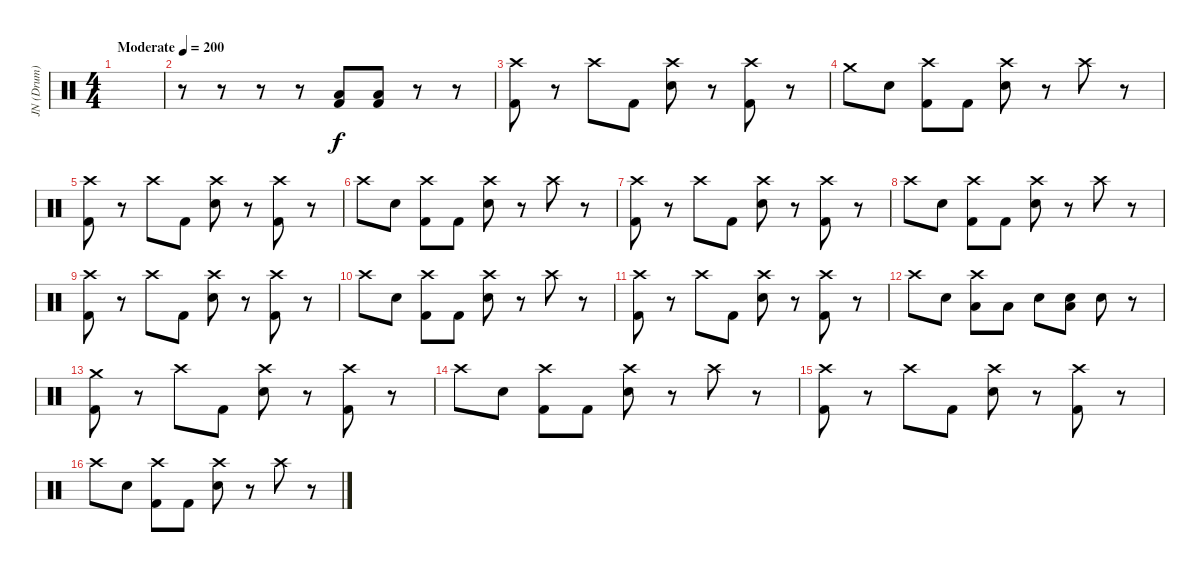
\track ("JN (Drum)" "JN (Drum)") {instrument percussion}
\staff {score}
\articulation defaults
\ts (4 4)
\tempo (200 "Moderate")
\clef neutral
\ks c
|
r.8 r.8 r.8 r.8 ("Low Tom (hit)" "Kick (hit) 2").8 ("Low Tom (hit)" "Kick (hit) 2").8 r.8 r.8 |
("Crash high (hit)" "Kick (hit) 2").8 r.8 "Crash high (hit)".8 "Kick (hit) 2".8 ("Crash high (hit)" "Electric Snare (hit)").8 r.8 ("Crash high (hit)" "Kick (hit) 2").8 r.8 |
"Crash medium (hit)".8 "Electric Snare (hit)".8 ("Crash high (hit)" "Kick (hit) 2").8 "Kick (hit) 2".8 ("Crash high (hit)" "Electric Snare (hit)").8 r.8 "Crash high (hit)".8 r.8 |
("Crash high (hit)" "Kick (hit) 2").8 r.8 "Crash high (hit)".8 "Kick (hit) 2".8 ("Crash high (hit)" "Electric Snare (hit)").8 r.8 ("Crash high (hit)" "Kick (hit) 2").8 r.8 |
"Crash high (hit)".8 "Electric Snare (hit)".8 ("Crash high (hit)" "Kick (hit) 2").8 "Kick (hit) 2".8 ("Crash high (hit)" "Electric Snare (hit)").8 r.8 "Crash high (hit)".8 r.8 |
("Crash high (hit)" "Kick (hit) 2").8 r.8 "Crash high (hit)".8 "Kick (hit) 2".8 ("Crash high (hit)" "Electric Snare (hit)").8 r.8 ("Crash high (hit)" "Kick (hit) 2").8 r.8 |
"Crash high (hit)".8 "Electric Snare (hit)".8 ("Crash high (hit)" "Kick (hit) 2").8 "Kick (hit) 2".8 ("Crash high (hit)" "Electric Snare (hit)").8 r.8 "Crash high (hit)".8 r.8 |
("Crash high (hit)" "Kick (hit) 2").8 r.8 "Crash high (hit)".8 "Kick (hit) 2".8 ("Crash high (hit)" "Electric Snare (hit)").8 r.8 ("Crash high (hit)" "Kick (hit) 2").8 r.8 |
"Crash high (hit)".8 "Electric Snare (hit)".8 ("Crash high (hit)" "Kick (hit) 2").8 "Kick (hit) 2".8 ("Crash high (hit)" "Electric Snare (hit)").8 r.8 "Crash high (hit)".8 r.8 |
("Crash high (hit)" "Kick (hit) 2").8 r.8 "Crash high (hit)".8 "Kick (hit) 2".8 ("Crash high (hit)" "Electric Snare (hit)").8 r.8 ("Crash high (hit)" "Kick (hit) 2").8 r.8 |
"Crash high (hit)".8 "Electric Snare (hit)".8 ("Crash high (hit)" "Low Tom (hit)").8 "Low Tom (hit)".8 "Electric Snare (hit)".8 ("Electric Snare (hit)" "Low Tom (hit)").8 "Electric Snare (hit)".8 r.8 |
("Crash medium (hit)" "Kick (hit) 2").8 r.8 "Crash high (hit)".8 "Kick (hit) 2".8 ("Crash high (hit)" "Electric Snare (hit)").8 r.8 ("Crash high (hit)" "Kick (hit) 2").8 r.8 |
"Crash high (hit)".8 "Electric Snare (hit)".8 ("Crash high (hit)" "Kick (hit) 2").8 "Kick (hit) 2".8 ("Crash high (hit)" "Electric Snare (hit)").8 r.8 "Crash high (hit)".8 r.8 |
("Crash high (hit)" "Kick (hit) 2").8 r.8 "Crash high (hit)".8 "Kick (hit) 2".8 ("Crash high (hit)" "Electric Snare (hit)").8 r.8 ("Crash high (hit)" "Kick (hit) 2").8 r.8 |
"Crash high (hit)".8 "Electric Snare (hit)".8 ("Crash high (hit)" "Kick (hit) 2").8 "Kick (hit) 2".8 ("Crash high (hit)" "Electric Snare (hit)").8 r.8 "Crash high (hit)".8 r.8
